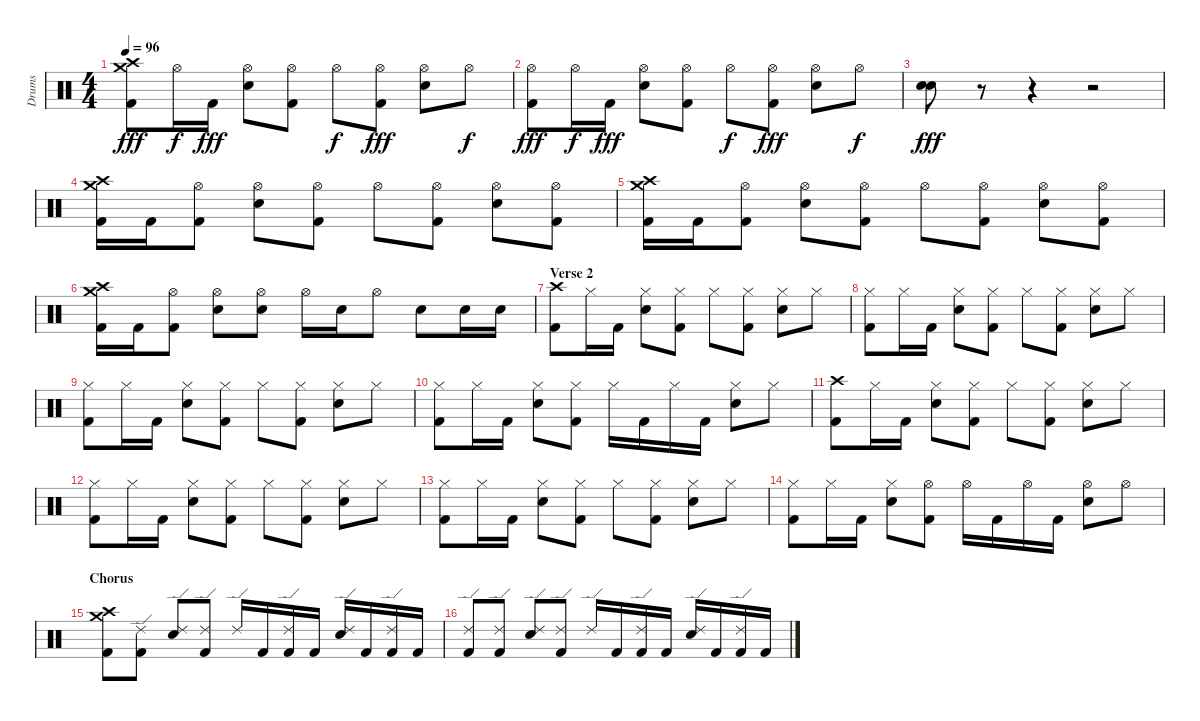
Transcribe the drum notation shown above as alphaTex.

\track ("Drums" "Drums") {instrument percussion}
\staff {score}
\articulation defaults
\ts (4 4)
\tempo 96
\clef neutral
\ks c
("Crash high (hit)" "Crash medium (hit)" "Kick (hit) 2").8{dy fff} "Hi-Hat (open)".16{dy f} "Kick (hit) 2".16{dy fff} ("Hi-Hat (open)" "Electric Snare (hit)").8 ("Hi-Hat (open)" "Kick (hit) 2").8 "Hi-Hat (open)".8{dy f} ("Hi-Hat (open)" "Kick (hit) 2").8{dy fff} ("Hi-Hat (open)" "Electric Snare (hit)").8 "Hi-Hat (open)".8{dy f} |
("Hi-Hat (open)" "Kick (hit) 2").8{dy fff} "Hi-Hat (open)".16{dy f} "Kick (hit) 2".16{dy fff} ("Hi-Hat (open)" "Electric Snare (hit)").8 ("Hi-Hat (open)" "Kick (hit) 2").8 "Hi-Hat (open)".8{dy f} ("Hi-Hat (open)" "Kick (hit) 2").8{dy fff} ("Hi-Hat (open)" "Electric Snare (hit)").8 "Hi-Hat (open)".8{dy f} |
("Electric Snare (hit)" "Electric Snare (hit)").8{dy fff} r.8 r.4 r.2 |
("Crash high (hit)" "Crash medium (hit)" "Kick (hit) 2").16 "Kick (hit) 2".16 ("Hi-Hat (open)" "Kick (hit) 2").8 ("Hi-Hat (open)" "Electric Snare (hit)").8 ("Hi-Hat (open)" "Kick (hit) 2").8 "Hi-Hat (open)".8 ("Hi-Hat (open)" "Kick (hit) 2").8 ("Hi-Hat (open)" "Electric Snare (hit)").8 ("Hi-Hat (open)" "Kick (hit) 2").8 |
("Crash high (hit)" "Crash medium (hit)" "Kick (hit) 2").16 "Kick (hit) 2".16 ("Hi-Hat (open)" "Kick (hit) 2").8 ("Hi-Hat (open)" "Electric Snare (hit)").8 ("Hi-Hat (open)" "Kick (hit) 2").8 "Hi-Hat (open)".8 ("Hi-Hat (open)" "Kick (hit) 2").8 ("Hi-Hat (open)" "Electric Snare (hit)").8 ("Hi-Hat (open)" "Kick (hit) 2").8 |
("Crash high (hit)" "Crash medium (hit)" "Kick (hit) 2").16 "Kick (hit) 2".16 ("Hi-Hat (open)" "Kick (hit) 2").8 ("Hi-Hat (open)" "Electric Snare (hit)").8 ("Hi-Hat (open)" "Electric Snare (hit)").8 "Hi-Hat (open)".16 "Electric Snare (hit)".16 "Hi-Hat (open)".8 "Electric Snare (hit)".8 "Electric Snare (hit)".16 "Electric Snare (hit)".16 |
\section ("" "Verse 2")
("Crash high (hit)" "Kick (hit) 2").8 "Hi-Hat (closed)".16 "Kick (hit) 2".16 ("Hi-Hat (closed)" "Electric Snare (hit)").8 ("Hi-Hat (closed)" "Kick (hit) 2").8 "Hi-Hat (closed)".8 ("Hi-Hat (closed)" "Kick (hit) 2").8 ("Hi-Hat (closed)" "Electric Snare (hit)").8 "Hi-Hat (closed)".8 |
("Hi-Hat (closed)" "Kick (hit) 2").8 "Hi-Hat (closed)".16 "Kick (hit) 2".16 ("Hi-Hat (closed)" "Electric Snare (hit)").8 ("Hi-Hat (closed)" "Kick (hit) 2").8 "Hi-Hat (closed)".8 ("Hi-Hat (closed)" "Kick (hit) 2").8 ("Hi-Hat (closed)" "Electric Snare (hit)").8 "Hi-Hat (closed)".8 |
("Hi-Hat (closed)" "Kick (hit) 2").8 "Hi-Hat (closed)".16 "Kick (hit) 2".16 ("Hi-Hat (closed)" "Electric Snare (hit)").8 ("Hi-Hat (closed)" "Kick (hit) 2").8 "Hi-Hat (closed)".8 ("Hi-Hat (closed)" "Kick (hit) 2").8 ("Hi-Hat (closed)" "Electric Snare (hit)").8 "Hi-Hat (closed)".8 |
("Hi-Hat (closed)" "Kick (hit) 2").8 "Hi-Hat (closed)".16 "Kick (hit) 2".16 ("Hi-Hat (closed)" "Electric Snare (hit)").8 ("Hi-Hat (closed)" "Kick (hit) 2").8 "Hi-Hat (closed)".16 "Kick (hit) 2".16 "Hi-Hat (closed)".16 "Kick (hit) 2".16 ("Hi-Hat (closed)" "Electric Snare (hit)").8 "Hi-Hat (closed)".8 |
("Crash high (hit)" "Kick (hit) 2").8 "Hi-Hat (closed)".16 "Kick (hit) 2".16 ("Hi-Hat (closed)" "Electric Snare (hit)").8 ("Hi-Hat (closed)" "Kick (hit) 2").8 "Hi-Hat (closed)".8 ("Hi-Hat (closed)" "Kick (hit) 2").8 ("Hi-Hat (closed)" "Electric Snare (hit)").8 "Hi-Hat (closed)".8 |
("Hi-Hat (closed)" "Kick (hit) 2").8 "Hi-Hat (closed)".16 "Kick (hit) 2".16 ("Hi-Hat (closed)" "Electric Snare (hit)").8 ("Hi-Hat (closed)" "Kick (hit) 2").8 "Hi-Hat (closed)".8 ("Hi-Hat (closed)" "Kick (hit) 2").8 ("Hi-Hat (closed)" "Electric Snare (hit)").8 "Hi-Hat (closed)".8 |
("Hi-Hat (closed)" "Kick (hit) 2").8 "Hi-Hat (closed)".16 "Kick (hit) 2".16 ("Hi-Hat (closed)" "Electric Snare (hit)").8 ("Hi-Hat (closed)" "Kick (hit) 2").8 "Hi-Hat (closed)".8 ("Hi-Hat (closed)" "Kick (hit) 2").8 ("Hi-Hat (closed)" "Electric Snare (hit)").8 "Hi-Hat (closed)".8 |
("Hi-Hat (closed)" "Kick (hit) 2").8 "Hi-Hat (closed)".16 "Kick (hit) 2".16 ("Hi-Hat (closed)" "Electric Snare (hit)").8 ("Hi-Hat (open)" "Kick (hit) 2").8 "Hi-Hat (open)".16 "Kick (hit) 2".16 "Hi-Hat (open)".16 "Kick (hit) 2".16 ("Hi-Hat (open)" "Electric Snare (hit)").8 "Hi-Hat (open)".8 |
\section ("" "Chorus")
("Crash high (hit)" "Crash medium (hit)" "Kick (hit) 2").8 ("Ride (edge) 2" "Kick (hit) 2").8 ("Ride (edge) 2" "Electric Snare (hit)").8 ("Ride (edge) 2" "Kick (hit) 2").8 "Ride (edge) 2".16 "Kick (hit) 2".16 ("Ride (edge) 2" "Kick (hit) 2").16 "Kick (hit) 2".16 ("Ride (edge) 2" "Electric Snare (hit)").16 "Kick (hit) 2".16 ("Ride (edge) 2" "Kick (hit) 2").16 "Kick (hit) 2".16 |
("Ride (edge) 2" "Kick (hit) 2").8 ("Ride (edge) 2" "Kick (hit) 2").8 ("Ride (edge) 2" "Electric Snare (hit)").8 ("Ride (edge) 2" "Kick (hit) 2").8 "Ride (edge) 2".16 "Kick (hit) 2".16 ("Ride (edge) 2" "Kick (hit) 2").16 "Kick (hit) 2".16 ("Ride (edge) 2" "Electric Snare (hit)").16 "Kick (hit) 2".16 ("Ride (edge) 2" "Kick (hit) 2").16 "Kick (hit) 2".16
